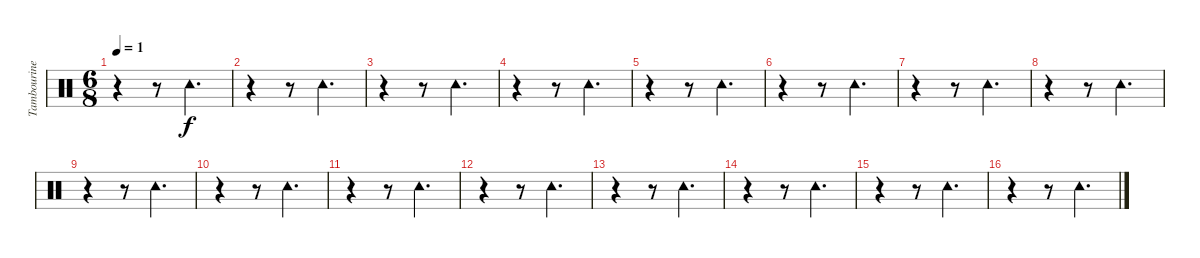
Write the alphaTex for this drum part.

\track ("Tambourine" "Tambourine") {instrument percussion}
\staff {score}
\articulation defaults
\ts (6 8)
\tempo 1
\clef neutral
\ks c
r.4{dy f} r.8 "Tambourine (hit)".4{d} |
r.4 r.8 "Tambourine (hit)".4{d} |
r.4 r.8 "Tambourine (hit)".4{d} |
r.4 r.8 "Tambourine (hit)".4{d} |
r.4 r.8 "Tambourine (hit)".4{d} |
r.4 r.8 "Tambourine (hit)".4{d} |
r.4 r.8 "Tambourine (hit)".4{d} |
r.4 r.8 "Tambourine (hit)".4{d} |
r.4 r.8 "Tambourine (hit)".4{d} |
r.4 r.8 "Tambourine (hit)".4{d} |
r.4 r.8 "Tambourine (hit)".4{d} |
r.4 r.8 "Tambourine (hit)".4{d} |
r.4 r.8 "Tambourine (hit)".4{d} |
r.4 r.8 "Tambourine (hit)".4{d} |
r.4 r.8 "Tambourine (hit)".4{d} |
r.4 r.8 "Tambourine (hit)".4{d}
